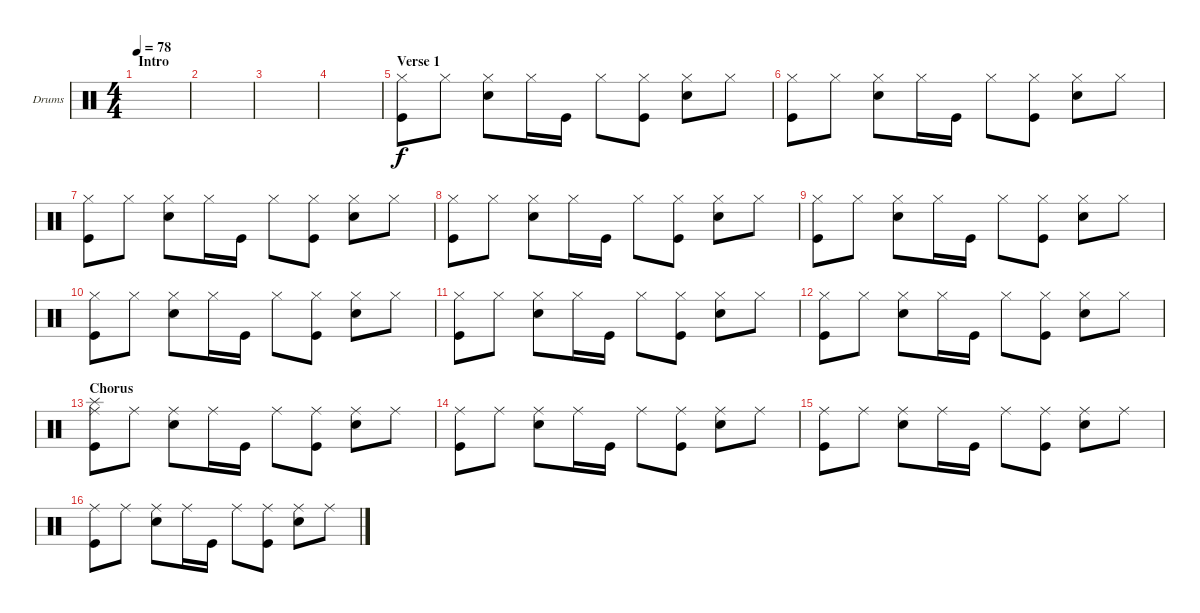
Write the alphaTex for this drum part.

\defaultSystemsLayout 4
\bracketExtendMode groupsimilarinstruments
\firstSystemTrackNameOrientation horizontal
\otherSystemsTrackNameOrientation horizontal
\track ("Drumkit" "Drums") {instrument percussion}
\staff {score}
\articulation defaults
\ts (4 4)
\section ("" "Intro")
\tempo 78
\clef neutral
\ks c
|
|
|
|
\section ("" "Verse 1")
("Kick (hit)" "Hi-Hat (closed)").8 "Hi-Hat (closed)".8 ("Hi-Hat (closed)" "Snare (hit) 2").8 "Hi-Hat (closed)".16 "Kick (hit)".16 "Hi-Hat (closed)".8 ("Kick (hit)" "Hi-Hat (closed)").8 ("Hi-Hat (closed)" "Snare (hit) 2").8 "Hi-Hat (closed)".8 |
("Kick (hit)" "Hi-Hat (closed)").8 "Hi-Hat (closed)".8 ("Hi-Hat (closed)" "Snare (hit) 2").8 "Hi-Hat (closed)".16 "Kick (hit)".16 "Hi-Hat (closed)".8 ("Kick (hit)" "Hi-Hat (closed)").8 ("Hi-Hat (closed)" "Snare (hit) 2").8 "Hi-Hat (closed)".8 |
("Kick (hit)" "Hi-Hat (closed)").8 "Hi-Hat (closed)".8 ("Hi-Hat (closed)" "Snare (hit) 2").8 "Hi-Hat (closed)".16 "Kick (hit)".16 "Hi-Hat (closed)".8 ("Kick (hit)" "Hi-Hat (closed)").8 ("Hi-Hat (closed)" "Snare (hit) 2").8 "Hi-Hat (closed)".8 |
("Kick (hit)" "Hi-Hat (closed)").8 "Hi-Hat (closed)".8 ("Hi-Hat (closed)" "Snare (hit) 2").8 "Hi-Hat (closed)".16 "Kick (hit)".16 "Hi-Hat (closed)".8 ("Kick (hit)" "Hi-Hat (closed)").8 ("Hi-Hat (closed)" "Snare (hit) 2").8 "Hi-Hat (closed)".8 |
("Kick (hit)" "Hi-Hat (closed)").8 "Hi-Hat (closed)".8 ("Hi-Hat (closed)" "Snare (hit) 2").8 "Hi-Hat (closed)".16 "Kick (hit)".16 "Hi-Hat (closed)".8 ("Kick (hit)" "Hi-Hat (closed)").8 ("Hi-Hat (closed)" "Snare (hit) 2").8 "Hi-Hat (closed)".8 |
("Kick (hit)" "Hi-Hat (closed)").8 "Hi-Hat (closed)".8 ("Hi-Hat (closed)" "Snare (hit) 2").8 "Hi-Hat (closed)".16 "Kick (hit)".16 "Hi-Hat (closed)".8 ("Kick (hit)" "Hi-Hat (closed)").8 ("Hi-Hat (closed)" "Snare (hit) 2").8 "Hi-Hat (closed)".8 |
("Kick (hit)" "Hi-Hat (closed)").8 "Hi-Hat (closed)".8 ("Hi-Hat (closed)" "Snare (hit) 2").8 "Hi-Hat (closed)".16 "Kick (hit)".16 "Hi-Hat (closed)".8 ("Kick (hit)" "Hi-Hat (closed)").8 ("Hi-Hat (closed)" "Snare (hit) 2").8 "Hi-Hat (closed)".8 |
("Kick (hit)" "Hi-Hat (closed)").8 "Hi-Hat (closed)".8 ("Hi-Hat (closed)" "Snare (hit) 2").8 "Hi-Hat (closed)".16 "Kick (hit)".16 "Hi-Hat (closed)".8 ("Kick (hit)" "Hi-Hat (closed)").8 ("Hi-Hat (closed)" "Snare (hit) 2").8 "Hi-Hat (closed)".8 |
\section ("" "Chorus")
\scale
0.314118 ("Kick (hit)" "Splash (hit)" "Ride (middle)").8 "Ride (middle)".8 ("Snare (hit) 2" "Ride (middle)").8 "Ride (middle)".16 "Kick (hit)".16 "Ride (middle)".8 ("Kick (hit)" "Ride (middle)").8 ("Snare (hit) 2" "Ride (middle)").8 "Ride (middle)".8 |
\scale
0.243644 ("Kick (hit)" "Ride (middle)").8 "Ride (middle)".8 ("Snare (hit) 2" "Ride (middle)").8 "Ride (middle)".16 "Kick (hit)".16 "Ride (middle)".8 ("Kick (hit)" "Ride (middle)").8 ("Snare (hit) 2" "Ride (middle)").8 "Ride (middle)".8 |
\scale
0.195467 ("Kick (hit)" "Ride (middle)").8 "Ride (middle)".8 ("Snare (hit) 2" "Ride (middle)").8 "Ride (middle)".16 "Kick (hit)".16 "Ride (middle)".8 ("Kick (hit)" "Ride (middle)").8 ("Snare (hit) 2" "Ride (middle)").8 "Ride (middle)".8 |
("Kick (hit)" "Ride (middle)").8 "Ride (middle)".8 ("Snare (hit) 2" "Ride (middle)").8 "Ride (middle)".16 "Kick (hit)".16 "Ride (middle)".8 ("Kick (hit)" "Ride (middle)").8 ("Snare (hit) 2" "Ride (middle)").8 "Ride (middle)".8
